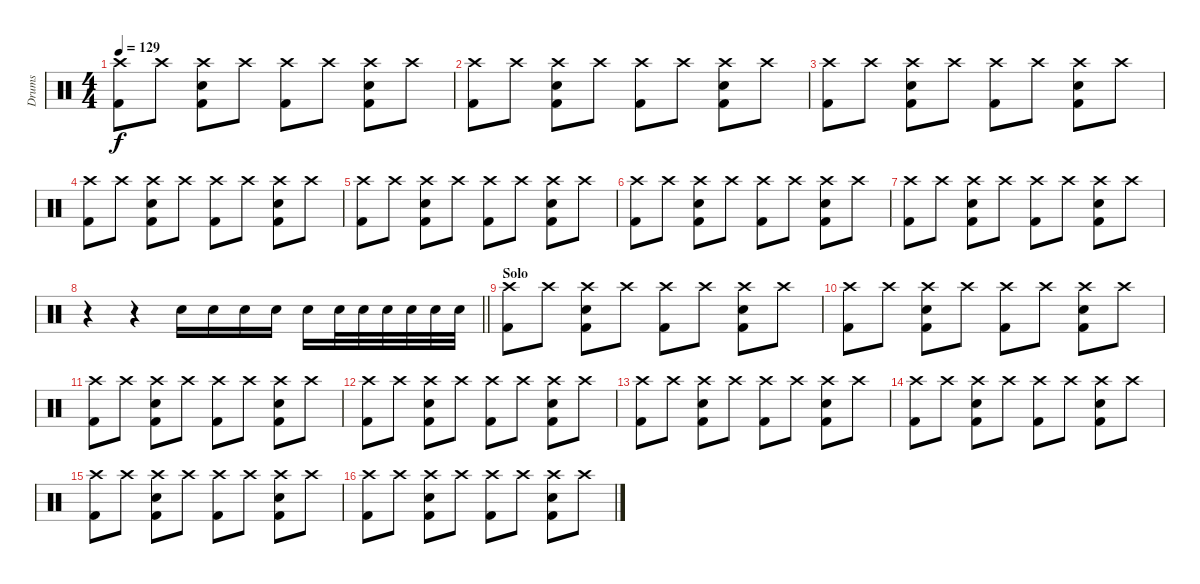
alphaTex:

\track ("Drums" "Drums") {instrument percussion}
\staff {score}
\articulation defaults
\ts (4 4)
\tempo 129
\clef neutral
\ks c
("Crash high (hit)" "Kick (hit) 2").8{dy f} "Crash high (hit)".8 ("Crash high (hit)" "Snare (hit) 2" "Kick (hit) 2").8 "Crash high (hit)".8 ("Crash high (hit)" "Kick (hit) 2").8 "Crash high (hit)".8 ("Crash high (hit)" "Snare (hit) 2" "Kick (hit) 2").8 "Crash high (hit)".8 |
("Crash high (hit)" "Kick (hit) 2").8 "Crash high (hit)".8 ("Crash high (hit)" "Snare (hit) 2" "Kick (hit) 2").8 "Crash high (hit)".8 ("Crash high (hit)" "Kick (hit) 2").8 "Crash high (hit)".8 ("Crash high (hit)" "Snare (hit) 2" "Kick (hit) 2").8 "Crash high (hit)".8 |
("Crash high (hit)" "Kick (hit) 2").8 "Crash high (hit)".8 ("Crash high (hit)" "Snare (hit) 2" "Kick (hit) 2").8 "Crash high (hit)".8 ("Crash high (hit)" "Kick (hit) 2").8 "Crash high (hit)".8 ("Crash high (hit)" "Snare (hit) 2" "Kick (hit) 2").8 "Crash high (hit)".8 |
("Crash high (hit)" "Kick (hit) 2").8 "Crash high (hit)".8 ("Crash high (hit)" "Snare (hit) 2" "Kick (hit) 2").8 "Crash high (hit)".8 ("Crash high (hit)" "Kick (hit) 2").8 "Crash high (hit)".8 ("Crash high (hit)" "Snare (hit) 2" "Kick (hit) 2").8 "Crash high (hit)".8 |
("Crash high (hit)" "Kick (hit) 2").8 "Crash high (hit)".8 ("Crash high (hit)" "Snare (hit) 2" "Kick (hit) 2").8 "Crash high (hit)".8 ("Crash high (hit)" "Kick (hit) 2").8 "Crash high (hit)".8 ("Crash high (hit)" "Snare (hit) 2" "Kick (hit) 2").8 "Crash high (hit)".8 |
("Crash high (hit)" "Kick (hit) 2").8 "Crash high (hit)".8 ("Crash high (hit)" "Snare (hit) 2" "Kick (hit) 2").8 "Crash high (hit)".8 ("Crash high (hit)" "Kick (hit) 2").8 "Crash high (hit)".8 ("Crash high (hit)" "Snare (hit) 2" "Kick (hit) 2").8 "Crash high (hit)".8 |
("Crash high (hit)" "Kick (hit) 2").8 "Crash high (hit)".8 ("Crash high (hit)" "Snare (hit) 2" "Kick (hit) 2").8 "Crash high (hit)".8 ("Crash high (hit)" "Kick (hit) 2").8 "Crash high (hit)".8 ("Crash high (hit)" "Snare (hit) 2" "Kick (hit) 2").8 "Crash high (hit)".8 |
\barLineRight lightlight
r.4 r.4 "Snare (hit) 2".16 "Snare (hit) 2".16 "Snare (hit) 2".16 "Snare (hit) 2".16 "Snare (hit) 2".16 "Snare (hit) 2".32 "Snare (hit) 2".32 "Snare (hit) 2".32 "Snare (hit) 2".32 "Snare (hit) 2".32 "Snare (hit) 2".32 |
\section ("" "Solo")
("Crash high (hit)" "Kick (hit) 2").8 "Crash high (hit)".8 ("Crash high (hit)" "Snare (hit) 2" "Kick (hit) 2").8 "Crash high (hit)".8 ("Crash high (hit)" "Kick (hit) 2").8 "Crash high (hit)".8 ("Crash high (hit)" "Snare (hit) 2" "Kick (hit) 2").8 "Crash high (hit)".8 |
("Crash high (hit)" "Kick (hit) 2").8 "Crash high (hit)".8 ("Crash high (hit)" "Snare (hit) 2" "Kick (hit) 2").8 "Crash high (hit)".8 ("Crash high (hit)" "Kick (hit) 2").8 "Crash high (hit)".8 ("Crash high (hit)" "Snare (hit) 2" "Kick (hit) 2").8 "Crash high (hit)".8 |
("Crash high (hit)" "Kick (hit) 2").8 "Crash high (hit)".8 ("Crash high (hit)" "Snare (hit) 2" "Kick (hit) 2").8 "Crash high (hit)".8 ("Crash high (hit)" "Kick (hit) 2").8 "Crash high (hit)".8 ("Crash high (hit)" "Snare (hit) 2" "Kick (hit) 2").8 "Crash high (hit)".8 |
("Crash high (hit)" "Kick (hit) 2").8 "Crash high (hit)".8 ("Crash high (hit)" "Snare (hit) 2" "Kick (hit) 2").8 "Crash high (hit)".8 ("Crash high (hit)" "Kick (hit) 2").8 "Crash high (hit)".8 ("Crash high (hit)" "Snare (hit) 2" "Kick (hit) 2").8 "Crash high (hit)".8 |
("Crash high (hit)" "Kick (hit) 2").8 "Crash high (hit)".8 ("Crash high (hit)" "Snare (hit) 2" "Kick (hit) 2").8 "Crash high (hit)".8 ("Crash high (hit)" "Kick (hit) 2").8 "Crash high (hit)".8 ("Crash high (hit)" "Snare (hit) 2" "Kick (hit) 2").8 "Crash high (hit)".8 |
("Crash high (hit)" "Kick (hit) 2").8 "Crash high (hit)".8 ("Crash high (hit)" "Snare (hit) 2" "Kick (hit) 2").8 "Crash high (hit)".8 ("Crash high (hit)" "Kick (hit) 2").8 "Crash high (hit)".8 ("Crash high (hit)" "Snare (hit) 2" "Kick (hit) 2").8 "Crash high (hit)".8 |
("Crash high (hit)" "Kick (hit) 2").8 "Crash high (hit)".8 ("Crash high (hit)" "Snare (hit) 2" "Kick (hit) 2").8 "Crash high (hit)".8 ("Crash high (hit)" "Kick (hit) 2").8 "Crash high (hit)".8 ("Crash high (hit)" "Snare (hit) 2" "Kick (hit) 2").8 "Crash high (hit)".8 |
("Crash high (hit)" "Kick (hit) 2").8 "Crash high (hit)".8 ("Crash high (hit)" "Snare (hit) 2" "Kick (hit) 2").8 "Crash high (hit)".8 ("Crash high (hit)" "Kick (hit) 2").8 "Crash high (hit)".8 ("Crash high (hit)" "Snare (hit) 2" "Kick (hit) 2").8 "Crash high (hit)".8
